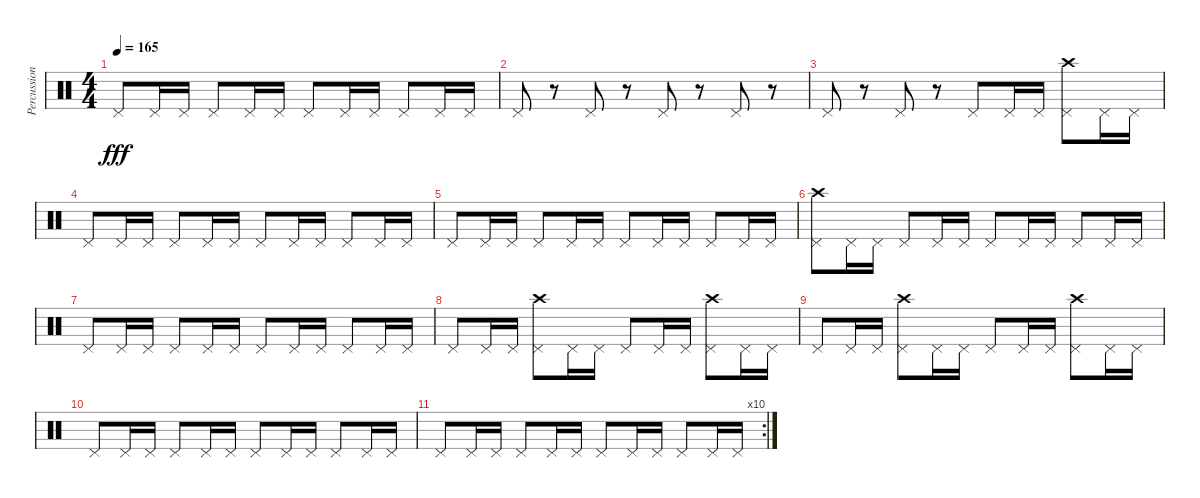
\track ("Percussion" "Percussion") {instrument percussion}
\staff {score}
\articulation defaults
\ts (4 4)
\tempo 165
\clef neutral
\ks c "Pedal Hi-Hat (hit)".8{dy fff} "Pedal Hi-Hat (hit)".16 "Pedal Hi-Hat (hit)".16 "Pedal Hi-Hat (hit)".8 "Pedal Hi-Hat (hit)".16 "Pedal Hi-Hat (hit)".16 "Pedal Hi-Hat (hit)".8 "Pedal Hi-Hat (hit)".16 "Pedal Hi-Hat (hit)".16 "Pedal Hi-Hat (hit)".8 "Pedal Hi-Hat (hit)".16 "Pedal Hi-Hat (hit)".16
|
"Pedal Hi-Hat (hit)".8 r.8 "Pedal Hi-Hat (hit)".8 r.8 "Pedal Hi-Hat (hit)".8 r.8 "Pedal Hi-Hat (hit)".8 r.8 |
"Pedal Hi-Hat (hit)".8 r.8 "Pedal Hi-Hat (hit)".8 r.8 "Pedal Hi-Hat (hit)".8 "Pedal Hi-Hat (hit)".16 "Pedal Hi-Hat (hit)".16 ("Crash high (hit)" "Pedal Hi-Hat (hit)").8 "Pedal Hi-Hat (hit)".16 "Pedal Hi-Hat (hit)".16 |
"Pedal Hi-Hat (hit)".8 "Pedal Hi-Hat (hit)".16 "Pedal Hi-Hat (hit)".16 "Pedal Hi-Hat (hit)".8 "Pedal Hi-Hat (hit)".16 "Pedal Hi-Hat (hit)".16 "Pedal Hi-Hat (hit)".8 "Pedal Hi-Hat (hit)".16 "Pedal Hi-Hat (hit)".16 "Pedal Hi-Hat (hit)".8 "Pedal Hi-Hat (hit)".16 "Pedal Hi-Hat (hit)".16 |
"Pedal Hi-Hat (hit)".8 "Pedal Hi-Hat (hit)".16 "Pedal Hi-Hat (hit)".16 "Pedal Hi-Hat (hit)".8 "Pedal Hi-Hat (hit)".16 "Pedal Hi-Hat (hit)".16 "Pedal Hi-Hat (hit)".8 "Pedal Hi-Hat (hit)".16 "Pedal Hi-Hat (hit)".16 "Pedal Hi-Hat (hit)".8 "Pedal Hi-Hat (hit)".16 "Pedal Hi-Hat (hit)".16 |
("Crash high (hit)" "Pedal Hi-Hat (hit)").8 "Pedal Hi-Hat (hit)".16 "Pedal Hi-Hat (hit)".16 "Pedal Hi-Hat (hit)".8 "Pedal Hi-Hat (hit)".16 "Pedal Hi-Hat (hit)".16 "Pedal Hi-Hat (hit)".8 "Pedal Hi-Hat (hit)".16 "Pedal Hi-Hat (hit)".16 "Pedal Hi-Hat (hit)".8 "Pedal Hi-Hat (hit)".16 "Pedal Hi-Hat (hit)".16 |
"Pedal Hi-Hat (hit)".8 "Pedal Hi-Hat (hit)".16 "Pedal Hi-Hat (hit)".16 "Pedal Hi-Hat (hit)".8 "Pedal Hi-Hat (hit)".16 "Pedal Hi-Hat (hit)".16 "Pedal Hi-Hat (hit)".8 "Pedal Hi-Hat (hit)".16 "Pedal Hi-Hat (hit)".16 "Pedal Hi-Hat (hit)".8 "Pedal Hi-Hat (hit)".16 "Pedal Hi-Hat (hit)".16 |
"Pedal Hi-Hat (hit)".8 "Pedal Hi-Hat (hit)".16 "Pedal Hi-Hat (hit)".16 ("Crash high (hit)" "Pedal Hi-Hat (hit)").8 "Pedal Hi-Hat (hit)".16 "Pedal Hi-Hat (hit)".16 "Pedal Hi-Hat (hit)".8 "Pedal Hi-Hat (hit)".16 "Pedal Hi-Hat (hit)".16 ("Crash high (hit)" "Pedal Hi-Hat (hit)").8 "Pedal Hi-Hat (hit)".16 "Pedal Hi-Hat (hit)".16 |
"Pedal Hi-Hat (hit)".8 "Pedal Hi-Hat (hit)".16 "Pedal Hi-Hat (hit)".16 ("Crash high (hit)" "Pedal Hi-Hat (hit)").8 "Pedal Hi-Hat (hit)".16 "Pedal Hi-Hat (hit)".16 "Pedal Hi-Hat (hit)".8 "Pedal Hi-Hat (hit)".16 "Pedal Hi-Hat (hit)".16 ("Crash high (hit)" "Pedal Hi-Hat (hit)").8 "Pedal Hi-Hat (hit)".16 "Pedal Hi-Hat (hit)".16 |
"Pedal Hi-Hat (hit)".8 "Pedal Hi-Hat (hit)".16 "Pedal Hi-Hat (hit)".16 "Pedal Hi-Hat (hit)".8 "Pedal Hi-Hat (hit)".16 "Pedal Hi-Hat (hit)".16 "Pedal Hi-Hat (hit)".8 "Pedal Hi-Hat (hit)".16 "Pedal Hi-Hat (hit)".16 "Pedal Hi-Hat (hit)".8 "Pedal Hi-Hat (hit)".16 "Pedal Hi-Hat (hit)".16 |
\rc 10 "Pedal Hi-Hat (hit)".8 "Pedal Hi-Hat (hit)".16 "Pedal Hi-Hat (hit)".16 "Pedal Hi-Hat (hit)".8 "Pedal Hi-Hat (hit)".16 "Pedal Hi-Hat (hit)".16 "Pedal Hi-Hat (hit)".8 "Pedal Hi-Hat (hit)".16 "Pedal Hi-Hat (hit)".16 "Pedal Hi-Hat (hit)".8 "Pedal Hi-Hat (hit)".16 "Pedal Hi-Hat (hit)".16
